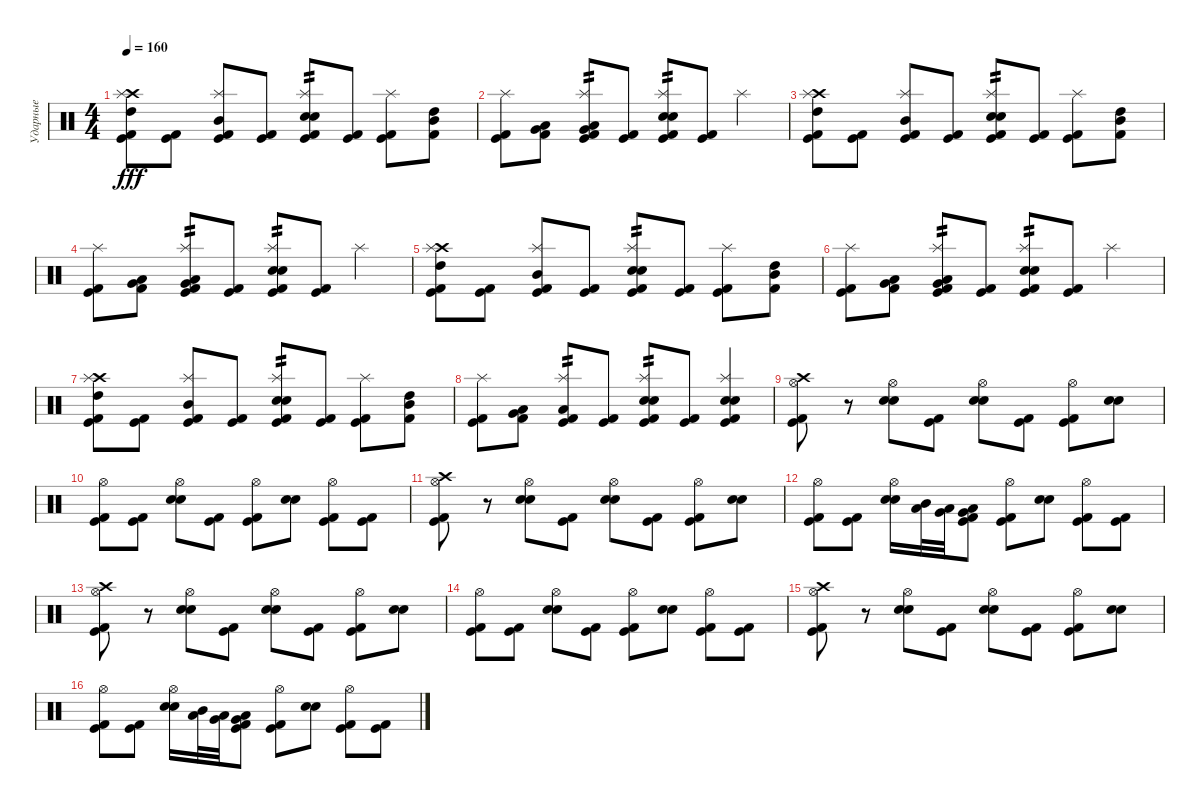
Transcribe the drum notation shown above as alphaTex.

\track ("Ударные" "Ударные") {instrument percussion}
\staff {score}
\articulation defaults
\ts (4 4)
\tempo 160
\clef neutral
\ks c
("Kick (hit) 2" "Kick (hit)" "High Tom (hit)" "Crash high (hit)" "Splash (hit)").8{dy fff} ("Kick (hit) 2" "Kick (hit)").8 ("Kick (hit) 2" "Kick (hit)" "Mid Tom (hit)" "Splash (hit)").8 ("Kick (hit) 2" "Kick (hit)").8 ("Kick (hit)" "Kick (hit) 2" "Snare (hit) 2" "Electric Snare (hit)" "Splash (hit)").8{tp 2} ("Kick (hit) 2" "Kick (hit)").8 ("Kick (hit) 2" "Kick (hit)" "Splash (hit)").8 ("Kick (hit) 2" "Mid Tom (hit)" "High Tom (hit)").8 |
("Kick (hit) 2" "Kick (hit)" "Splash (hit)").8 ("Kick (hit) 2" "Very Low Tom (hit)" "Low Tom (hit)").8 ("Kick (hit) 2" "Kick (hit)" "Very Low Tom (hit)" "Low Floor Tom (hit)" "Splash (hit)").8{tp 2} ("Kick (hit) 2" "Kick (hit)").8 ("Kick (hit) 2" "Kick (hit)" "Snare (hit) 2" "Electric Snare (hit)" "Splash (hit)").8{tp 2} ("Kick (hit) 2" "Kick (hit)").8 "Splash (hit)".4 |
("Kick (hit) 2" "Kick (hit)" "High Tom (hit)" "Crash high (hit)" "Splash (hit)").8 ("Kick (hit) 2" "Kick (hit)").8 ("Kick (hit) 2" "Kick (hit)" "Mid Tom (hit)" "Splash (hit)").8 ("Kick (hit) 2" "Kick (hit)").8 ("Kick (hit)" "Kick (hit) 2" "Snare (hit) 2" "Electric Snare (hit)" "Splash (hit)").8{tp 2} ("Kick (hit) 2" "Kick (hit)").8 ("Kick (hit) 2" "Kick (hit)" "Splash (hit)").8 ("Kick (hit) 2" "Mid Tom (hit)" "High Tom (hit)").8 |
("Kick (hit) 2" "Kick (hit)" "Splash (hit)").8 ("Kick (hit) 2" "Very Low Tom (hit)" "Low Tom (hit)").8 ("Kick (hit) 2" "Kick (hit)" "Very Low Tom (hit)" "Low Floor Tom (hit)" "Splash (hit)").8{tp 2} ("Kick (hit) 2" "Kick (hit)").8 ("Kick (hit) 2" "Kick (hit)" "Snare (hit) 2" "Electric Snare (hit)" "Splash (hit)").8{tp 2} ("Kick (hit) 2" "Kick (hit)").8 "Splash (hit)".4 |
("Kick (hit) 2" "Kick (hit)" "High Tom (hit)" "Crash high (hit)" "Splash (hit)").8 ("Kick (hit) 2" "Kick (hit)").8 ("Kick (hit) 2" "Kick (hit)" "Mid Tom (hit)" "Splash (hit)").8 ("Kick (hit) 2" "Kick (hit)").8 ("Kick (hit)" "Kick (hit) 2" "Snare (hit) 2" "Electric Snare (hit)" "Splash (hit)").8{tp 2} ("Kick (hit) 2" "Kick (hit)").8 ("Kick (hit) 2" "Kick (hit)" "Splash (hit)").8 ("Kick (hit) 2" "Mid Tom (hit)" "High Tom (hit)").8 |
("Kick (hit) 2" "Kick (hit)" "Splash (hit)").8 ("Kick (hit) 2" "Very Low Tom (hit)" "Low Tom (hit)").8 ("Kick (hit) 2" "Kick (hit)" "Very Low Tom (hit)" "Low Floor Tom (hit)" "Splash (hit)").8{tp 2} ("Kick (hit) 2" "Kick (hit)").8 ("Kick (hit) 2" "Kick (hit)" "Snare (hit) 2" "Electric Snare (hit)" "Splash (hit)").8{tp 2} ("Kick (hit) 2" "Kick (hit)").8 "Splash (hit)".4 |
("Kick (hit) 2" "Kick (hit)" "High Tom (hit)" "Crash high (hit)" "Splash (hit)").8 ("Kick (hit) 2" "Kick (hit)").8 ("Kick (hit) 2" "Kick (hit)" "Mid Tom (hit)" "Splash (hit)").8 ("Kick (hit) 2" "Kick (hit)").8 ("Kick (hit)" "Kick (hit) 2" "Snare (hit) 2" "Electric Snare (hit)" "Splash (hit)").8{tp 2} ("Kick (hit) 2" "Kick (hit)").8 ("Kick (hit) 2" "Kick (hit)" "Splash (hit)").8 ("Kick (hit) 2" "Mid Tom (hit)" "High Tom (hit)").8 |
("Kick (hit) 2" "Kick (hit)" "Splash (hit)").8 ("Kick (hit) 2" "Very Low Tom (hit)" "Low Tom (hit)").8 ("Kick (hit) 2" "Kick (hit)" "Low Floor Tom (hit)" "Splash (hit)").8{tp 2} ("Kick (hit) 2" "Kick (hit)").8 ("Kick (hit) 2" "Kick (hit)" "Snare (hit) 2" "Electric Snare (hit)" "Splash (hit)").8{tp 2} ("Kick (hit) 2" "Kick (hit)").8 ("Kick (hit) 2" "Kick (hit)" "Snare (hit) 2" "Electric Snare (hit)" "Splash (hit)").4 |
("Kick (hit) 2" "Kick (hit)" "Hi-Hat (open)" "Crash high (hit)").8 r.8 ("Snare (hit) 2" "Electric Snare (hit)" "Hi-Hat (open)").8 ("Kick (hit) 2" "Kick (hit)").8 ("Snare (hit) 2" "Electric Snare (hit)" "Hi-Hat (open)").8 ("Kick (hit) 2" "Kick (hit)").8 ("Kick (hit) 2" "Kick (hit)" "Hi-Hat (open)").8 ("Snare (hit) 2" "Electric Snare (hit)").8 |
("Kick (hit) 2" "Kick (hit)" "Hi-Hat (open)").8 ("Kick (hit) 2" "Kick (hit)").8 ("Snare (hit) 2" "Electric Snare (hit)" "Hi-Hat (open)").8 ("Kick (hit) 2" "Kick (hit)").8 ("Kick (hit) 2" "Kick (hit)" "Hi-Hat (open)").8 ("Snare (hit) 2" "Electric Snare (hit)").8 ("Kick (hit) 2" "Kick (hit)" "Hi-Hat (open)").8 ("Kick (hit) 2" "Kick (hit)").8 |
("Kick (hit) 2" "Kick (hit)" "Hi-Hat (open)" "Crash high (hit)").8 r.8 ("Snare (hit) 2" "Electric Snare (hit)" "Hi-Hat (open)").8 ("Kick (hit) 2" "Kick (hit)").8 ("Snare (hit) 2" "Electric Snare (hit)" "Hi-Hat (open)").8 ("Kick (hit) 2" "Kick (hit)").8 ("Kick (hit) 2" "Kick (hit)" "Hi-Hat (open)").8 ("Snare (hit) 2" "Electric Snare (hit)").8 |
("Kick (hit) 2" "Kick (hit)" "Hi-Hat (open)").8 ("Kick (hit) 2" "Kick (hit)").8 ("Snare (hit) 2" "Electric Snare (hit)" "Hi-Hat (open)").16 ("Low Tom (hit)" "Mid Tom (hit)").32 ("Very Low Tom (hit)" "Low Tom (hit)").32 ("Kick (hit) 2" "Kick (hit)" "Low Floor Tom (hit)" "Very Low Tom (hit)").8 ("Kick (hit) 2" "Kick (hit)" "Hi-Hat (open)").8 ("Snare (hit) 2" "Electric Snare (hit)").8 ("Kick (hit) 2" "Kick (hit)" "Hi-Hat (open)").8 ("Kick (hit) 2" "Kick (hit)").8 |
("Kick (hit) 2" "Kick (hit)" "Hi-Hat (open)" "Crash high (hit)").8 r.8 ("Snare (hit) 2" "Electric Snare (hit)" "Hi-Hat (open)").8 ("Kick (hit) 2" "Kick (hit)").8 ("Snare (hit) 2" "Electric Snare (hit)" "Hi-Hat (open)").8 ("Kick (hit) 2" "Kick (hit)").8 ("Kick (hit) 2" "Kick (hit)" "Hi-Hat (open)").8 ("Snare (hit) 2" "Electric Snare (hit)").8 |
("Kick (hit) 2" "Kick (hit)" "Hi-Hat (open)").8 ("Kick (hit) 2" "Kick (hit)").8 ("Snare (hit) 2" "Electric Snare (hit)" "Hi-Hat (open)").8 ("Kick (hit) 2" "Kick (hit)").8 ("Kick (hit) 2" "Kick (hit)" "Hi-Hat (open)").8 ("Snare (hit) 2" "Electric Snare (hit)").8 ("Kick (hit) 2" "Kick (hit)" "Hi-Hat (open)").8 ("Kick (hit) 2" "Kick (hit)").8 |
("Kick (hit) 2" "Kick (hit)" "Hi-Hat (open)" "Crash high (hit)").8 r.8 ("Snare (hit) 2" "Electric Snare (hit)" "Hi-Hat (open)").8 ("Kick (hit) 2" "Kick (hit)").8 ("Snare (hit) 2" "Electric Snare (hit)" "Hi-Hat (open)").8 ("Kick (hit) 2" "Kick (hit)").8 ("Kick (hit) 2" "Kick (hit)" "Hi-Hat (open)").8 ("Snare (hit) 2" "Electric Snare (hit)").8 |
("Kick (hit) 2" "Kick (hit)" "Hi-Hat (open)").8 ("Kick (hit) 2" "Kick (hit)").8 ("Snare (hit) 2" "Electric Snare (hit)" "Hi-Hat (open)").16 ("Low Tom (hit)" "Mid Tom (hit)").32 ("Very Low Tom (hit)" "Low Tom (hit)").32 ("Kick (hit) 2" "Kick (hit)" "Low Floor Tom (hit)" "Very Low Tom (hit)").8 ("Kick (hit) 2" "Kick (hit)" "Hi-Hat (open)").8 ("Snare (hit) 2" "Electric Snare (hit)").8 ("Kick (hit) 2" "Kick (hit)" "Hi-Hat (open)").8 ("Kick (hit) 2" "Kick (hit)").8
